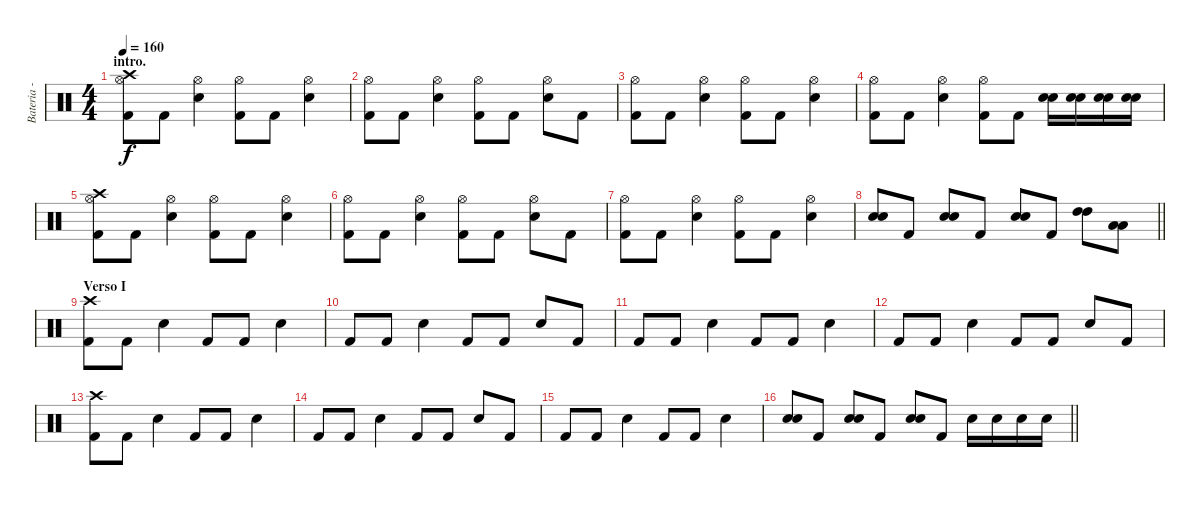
\track ("Bateria - Larzon" "Bateria - ") {instrument percussion}
\staff {score}
\articulation defaults
\ts (4 4)
\section ("" "intro.")
\tempo 160
\clef neutral
\ks c
("Kick (hit) 2" "Hi-Hat (open)" "Crash high (hit)").8{dy f} "Kick (hit) 2".8 ("Snare (hit) 2" "Hi-Hat (open)").4 ("Kick (hit) 2" "Hi-Hat (open)").8 "Kick (hit) 2".8 ("Snare (hit) 2" "Hi-Hat (open)").4 |
("Kick (hit) 2" "Hi-Hat (open)").8 "Kick (hit) 2".8 ("Snare (hit) 2" "Hi-Hat (open)").4 ("Kick (hit) 2" "Hi-Hat (open)").8 "Kick (hit) 2".8 ("Snare (hit) 2" "Hi-Hat (open)").8 "Kick (hit) 2".8 |
("Kick (hit) 2" "Hi-Hat (open)").8 "Kick (hit) 2".8 ("Snare (hit) 2" "Hi-Hat (open)").4 ("Kick (hit) 2" "Hi-Hat (open)").8 "Kick (hit) 2".8 ("Snare (hit) 2" "Hi-Hat (open)").4 |
("Kick (hit) 2" "Hi-Hat (open)").8 "Kick (hit) 2".8 ("Snare (hit) 2" "Hi-Hat (open)").4 ("Kick (hit) 2" "Hi-Hat (open)").8 "Kick (hit) 2".8 ("Snare (hit) 2" "Snare (hit) 2").16 ("Snare (hit) 2" "Snare (hit) 2").16 ("Snare (hit) 2" "Snare (hit) 2").16 ("Snare (hit) 2" "Snare (hit) 2").16 |
("Kick (hit) 2" "Hi-Hat (open)" "Crash high (hit)").8 "Kick (hit) 2".8 ("Snare (hit) 2" "Hi-Hat (open)").4 ("Kick (hit) 2" "Hi-Hat (open)").8 "Kick (hit) 2".8 ("Snare (hit) 2" "Hi-Hat (open)").4 |
("Kick (hit) 2" "Hi-Hat (open)").8 "Kick (hit) 2".8 ("Snare (hit) 2" "Hi-Hat (open)").4 ("Kick (hit) 2" "Hi-Hat (open)").8 "Kick (hit) 2".8 ("Snare (hit) 2" "Hi-Hat (open)").8 "Kick (hit) 2".8 |
("Kick (hit) 2" "Hi-Hat (open)").8 "Kick (hit) 2".8 ("Snare (hit) 2" "Hi-Hat (open)").4 ("Kick (hit) 2" "Hi-Hat (open)").8 "Kick (hit) 2".8 ("Snare (hit) 2" "Hi-Hat (open)").4 |
\barLineRight lightlight
("Snare (hit) 2" "Snare (hit) 2").8 "Kick (hit) 2".8 ("Snare (hit) 2" "Snare (hit) 2").8 "Kick (hit) 2".8 ("Snare (hit) 2" "Snare (hit) 2").8 "Kick (hit) 2".8 ("High Tom (hit)" "High Tom (hit)").8 ("Low Floor Tom (hit)" "Low Floor Tom (hit)").8 |
\section ("" "Verso I")
("Kick (hit) 2" "Crash high (hit)").8 "Kick (hit) 2".8 "Snare (hit) 2".4 "Kick (hit) 2".8 "Kick (hit) 2".8 "Snare (hit) 2".4 |
"Kick (hit) 2".8 "Kick (hit) 2".8 "Snare (hit) 2".4 "Kick (hit) 2".8 "Kick (hit) 2".8 "Snare (hit) 2".8 "Kick (hit) 2".8 |
"Kick (hit) 2".8 "Kick (hit) 2".8 "Snare (hit) 2".4 "Kick (hit) 2".8 "Kick (hit) 2".8 "Snare (hit) 2".4 |
"Kick (hit) 2".8 "Kick (hit) 2".8 "Snare (hit) 2".4 "Kick (hit) 2".8 "Kick (hit) 2".8 "Snare (hit) 2".8 "Kick (hit) 2".8 |
("Kick (hit) 2" "Crash high (hit)").8 "Kick (hit) 2".8 "Snare (hit) 2".4 "Kick (hit) 2".8 "Kick (hit) 2".8 "Snare (hit) 2".4 |
"Kick (hit) 2".8 "Kick (hit) 2".8 "Snare (hit) 2".4 "Kick (hit) 2".8 "Kick (hit) 2".8 "Snare (hit) 2".8 "Kick (hit) 2".8 |
"Kick (hit) 2".8 "Kick (hit) 2".8 "Snare (hit) 2".4 "Kick (hit) 2".8 "Kick (hit) 2".8 "Snare (hit) 2".4 |
\barLineRight lightlight
("Snare (hit) 2" "Snare (hit) 2").8 "Kick (hit) 2".8 ("Snare (hit) 2" "Snare (hit) 2").8 "Kick (hit) 2".8 ("Snare (hit) 2" "Snare (hit) 2").8 "Kick (hit) 2".8 "Snare (hit) 2".16 "Snare (hit) 2".16 "Snare (hit) 2".16 "Snare (hit) 2".16
